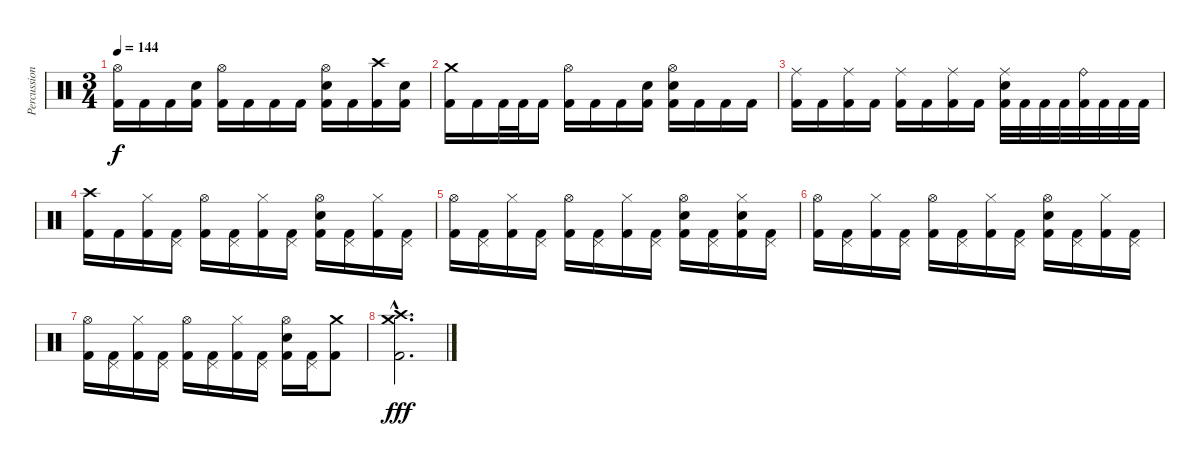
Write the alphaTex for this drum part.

\track ("Percussion" "Percussion") {instrument percussion}
\staff {score}
\articulation defaults
\ts (3 4)
\tempo 144
\clef neutral
\ks c
("Hi-Hat (open)" "Kick (hit) 2").16{dy f} "Kick (hit) 2".16 "Kick (hit) 2".16 ("Electric Snare (hit)" "Kick (hit) 2").16 ("Hi-Hat (open)" "Kick (hit) 2").16 "Kick (hit) 2".16 "Kick (hit) 2".16 "Kick (hit) 2".16 ("Hi-Hat (open)" "Electric Snare (hit)" "Kick (hit) 2").16 "Kick (hit) 2".16 ("Crash high (hit)" "Kick (hit) 2").16 ("Electric Snare (hit)" "Kick (hit) 2").16 |
("Crash medium (hit)" "Kick (hit) 2").16 "Kick (hit) 2".16 "Kick (hit) 2".32 "Kick (hit) 2".32 "Kick (hit) 2".16 ("Hi-Hat (open)" "Kick (hit) 2").16 "Kick (hit) 2".16 "Kick (hit) 2".16 ("Electric Snare (hit)" "Kick (hit) 2").16 ("Hi-Hat (open)" "Electric Snare (hit)" "Kick (hit) 2").16 "Kick (hit) 2".16 "Kick (hit) 2".16 "Kick (hit) 2".16 |
("Ride (middle)" "Kick (hit) 2").16 "Kick (hit) 2".16 ("Ride (middle)" "Kick (hit) 2").16 "Kick (hit) 2".16 ("Ride (middle)" "Kick (hit) 2").16 "Kick (hit) 2".16 ("Ride (middle)" "Kick (hit) 2").16 "Kick (hit) 2".16 ("Ride (middle)" "Electric Snare (hit)" "Kick (hit) 2").32 "Kick (hit) 2".32 "Kick (hit) 2".32 "Kick (hit) 2".32 ("Ride (bell)" "Kick (hit) 2").32 "Kick (hit) 2".32 "Kick (hit) 2".32 "Kick (hit) 2".32 |
("Crash high (hit)" "Kick (hit) 2").16 "Kick (hit) 2".16 ("Hi-Hat (closed)" "Kick (hit) 2").16 ("Pedal Hi-Hat (hit)" "Kick (hit) 2").16 ("Hi-Hat (open)" "Kick (hit) 2").16 ("Pedal Hi-Hat (hit)" "Kick (hit) 2").16 ("Hi-Hat (closed)" "Kick (hit) 2").16 ("Pedal Hi-Hat (hit)" "Kick (hit) 2").16 ("Hi-Hat (open)" "Electric Snare (hit)" "Kick (hit) 2").16 ("Pedal Hi-Hat (hit)" "Kick (hit) 2").16 ("Hi-Hat (closed)" "Kick (hit) 2").16 ("Pedal Hi-Hat (hit)" "Kick (hit) 2").16 |
("Hi-Hat (open)" "Kick (hit) 2").16 ("Pedal Hi-Hat (hit)" "Kick (hit) 2").16 ("Hi-Hat (closed)" "Kick (hit) 2").16 ("Pedal Hi-Hat (hit)" "Kick (hit) 2").16 ("Hi-Hat (open)" "Kick (hit) 2").16 ("Pedal Hi-Hat (hit)" "Kick (hit) 2").16 ("Hi-Hat (closed)" "Kick (hit) 2").16 ("Pedal Hi-Hat (hit)" "Kick (hit) 2").16 ("Hi-Hat (open)" "Electric Snare (hit)" "Kick (hit) 2").16 ("Pedal Hi-Hat (hit)" "Kick (hit) 2").16 ("Hi-Hat (closed)" "Electric Snare (hit)" "Kick (hit) 2").16 ("Pedal Hi-Hat (hit)" "Kick (hit) 2").16 |
("Hi-Hat (open)" "Kick (hit) 2").16 ("Pedal Hi-Hat (hit)" "Kick (hit) 2").16 ("Hi-Hat (closed)" "Kick (hit) 2").16 ("Pedal Hi-Hat (hit)" "Kick (hit) 2").16 ("Hi-Hat (open)" "Kick (hit) 2").16 ("Pedal Hi-Hat (hit)" "Kick (hit) 2").16 ("Hi-Hat (closed)" "Kick (hit) 2").16 ("Pedal Hi-Hat (hit)" "Kick (hit) 2").16 ("Hi-Hat (open)" "Electric Snare (hit)" "Kick (hit) 2").16 ("Pedal Hi-Hat (hit)" "Kick (hit) 2").16 ("Hi-Hat (closed)" "Kick (hit) 2").16 ("Pedal Hi-Hat (hit)" "Kick (hit) 2").16 |
("Hi-Hat (open)" "Kick (hit) 2").16 ("Pedal Hi-Hat (hit)" "Kick (hit) 2").16 ("Hi-Hat (closed)" "Kick (hit) 2").16 ("Pedal Hi-Hat (hit)" "Kick (hit) 2").16 ("Hi-Hat (open)" "Kick (hit) 2").16 ("Pedal Hi-Hat (hit)" "Kick (hit) 2").16 ("Hi-Hat (closed)" "Kick (hit) 2").16 ("Pedal Hi-Hat (hit)" "Kick (hit) 2").16 ("Hi-Hat (open)" "Electric Snare (hit)" "Kick (hit) 2").16 ("Pedal Hi-Hat (hit)" "Kick (hit) 2").16 ("Crash medium (hit)" "Kick (hit) 2").8 |
("Crash high (hit)"{hac} "Crash medium (hit)"{hac} "Kick (hit) 2"{hac}).2{d dy fff}
